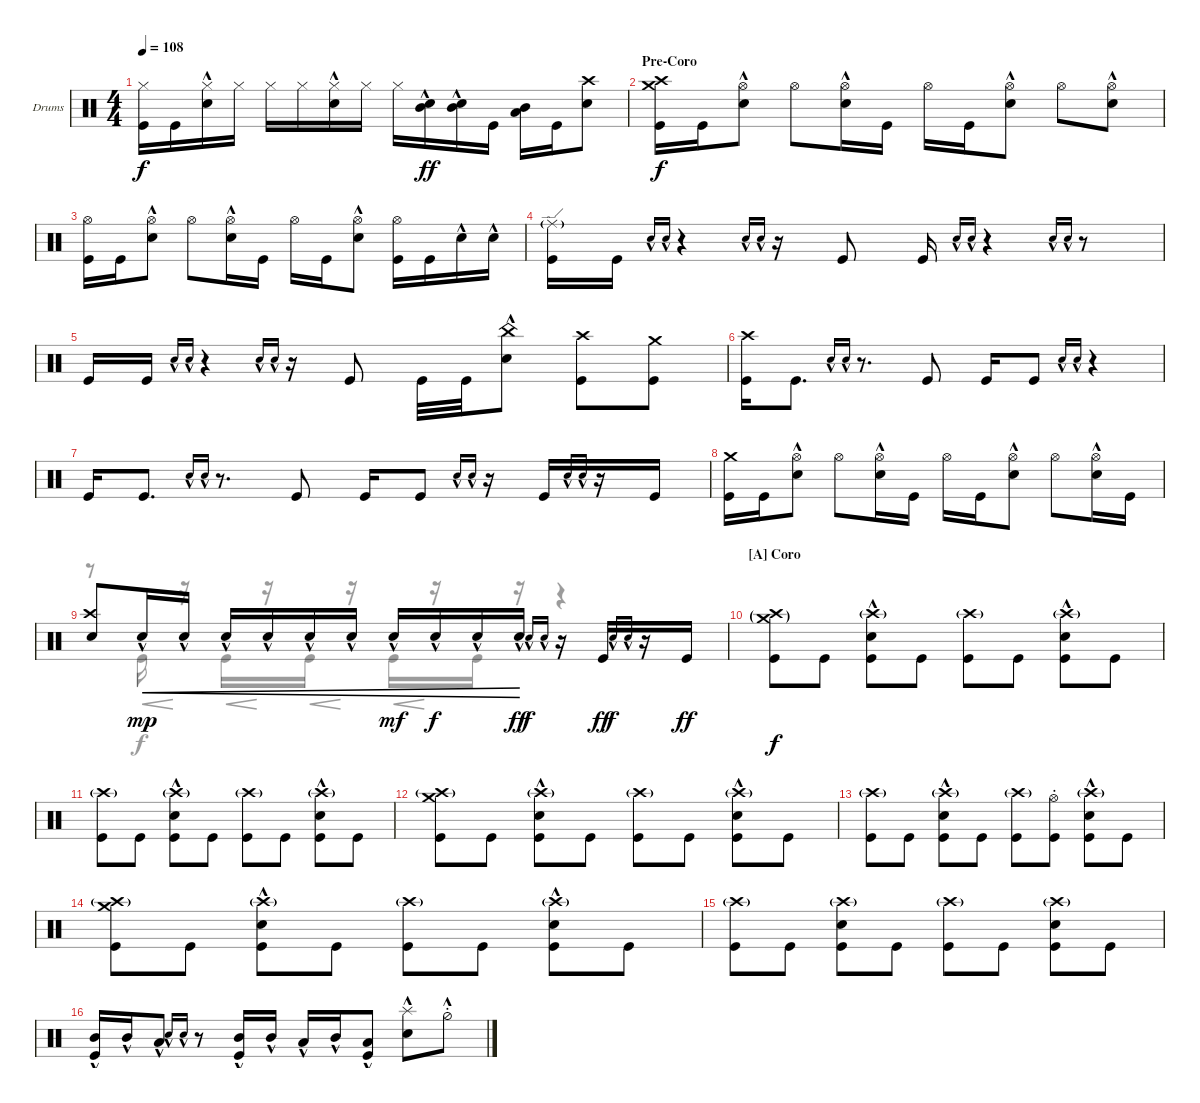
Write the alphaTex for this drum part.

\defaultSystemsLayout 4
\bracketExtendMode groupsimilarinstruments
\firstSystemTrackNameOrientation horizontal
\otherSystemsTrackNameOrientation horizontal
\track ("Drumkit " "Drums") {instrument percussion}
\staff {score}
\articulation defaults
\voice
\ts (4 4)
\tempo 108
\clef neutral
\ks c
("Kick (hit)" "Hi-Hat (closed)").16{dy f} "Kick (hit)".16 ("Snare (hit) 2"{hac} "Hi-Hat (closed)").16 "Hi-Hat (closed)".16 "Hi-Hat (closed)".16 "Hi-Hat (closed)".16 ("Snare (hit) 2"{hac} "Hi-Hat (closed)").16 "Hi-Hat (closed)".16 "Hi-Hat (closed)".16 ("Snare (hit) 2"{hac} "Mid Tom (hit)"{hac}).16{dy ff} ("Snare (hit) 2"{hac} "Mid Tom (hit)"{hac}).16 "Kick (hit)".16 ("Mid Tom (hit)" "Low Tom (hit)").16 "Kick (hit)".16 ("Snare (hit) 2" "Crash high (hit)").8 |
\section ("" "Pre-Coro")
("Kick (hit)" "Crash medium (hit)" "Crash high (hit)").16{dy f} "Kick (hit)".16 ("Snare (hit) 2"{hac} "Hi-Hat (open)").8 "Hi-Hat (open)".8 ("Snare (hit) 2"{hac} "Hi-Hat (open)").16 "Kick (hit)".16 "Hi-Hat (open)".16 "Kick (hit)".16 ("Hi-Hat (open)" "Snare (hit) 2"{hac}).8 "Hi-Hat (open)".8 ("Hi-Hat (open)" "Snare (hit) 2"{hac}).8 |
("Kick (hit)" "Hi-Hat (open)").16 "Kick (hit)".16 ("Snare (hit) 2"{hac} "Hi-Hat (open)").8 "Hi-Hat (open)".8 ("Snare (hit) 2"{hac} "Hi-Hat (open)").16 "Kick (hit)".16 "Hi-Hat (open)".16 "Kick (hit)".16 ("Hi-Hat (open)" "Snare (hit) 2"{hac}).8 ("Kick (hit)" "Hi-Hat (open)").16 "Kick (hit)".16 "Snare (hit) 2"{hac}.16 "Snare (hit) 2"{hac}.16 |
("Kick (hit)" "Ride (edge)"{g}).16 "Kick (hit)".16 "Snare (hit) 2"{hac}.16{gr onbeat} "Snare (hit) 2"{hac}.16{gr onbeat} r.4 "Snare (hit) 2"{hac}.16{gr onbeat} "Snare (hit) 2"{hac}.16{gr onbeat} r.16 "Kick (hit)".8 "Kick (hit)".16 "Snare (hit) 2"{hac}.16{gr onbeat} "Snare (hit) 2"{hac}.16{gr onbeat} r.4 "Snare (hit) 2"{hac}.16{gr onbeat} "Snare (hit) 2"{hac}.16{gr onbeat} r.8 |
"Kick (hit)".16 "Kick (hit)".16 "Snare (hit) 2"{hac}.16{gr onbeat} "Snare (hit) 2"{hac}.16{gr onbeat} r.4 "Snare (hit) 2"{hac}.16{gr onbeat} "Snare (hit) 2"{hac}.16{gr onbeat} r.16 "Kick (hit)".8 "Kick (hit)".32 "Kick (hit)".32 ("Snare (hit) 2"{hac} "China (hit)").8 ("Kick (hit)" "Crash high (hit)").8 ("Kick (hit)" "Crash medium (hit)").8 |
("Kick (hit)" "Crash high (hit)").16 "Kick (hit)".8{d} "Snare (hit) 2"{hac}.16{gr onbeat} "Snare (hit) 2"{hac}.16{gr onbeat} r.8{d} "Kick (hit)".8 "Kick (hit)".16 "Kick (hit)".8 "Snare (hit) 2"{hac}.16{gr onbeat} "Snare (hit) 2"{hac}.16{gr onbeat} r.4 |
"Kick (hit)".16 "Kick (hit)".8{d} "Snare (hit) 2"{hac}.16{gr onbeat} "Snare (hit) 2"{hac}.16{gr onbeat} r.8{d} "Kick (hit)".8 "Kick (hit)".16 "Kick (hit)".8 "Snare (hit) 2"{hac}.16{gr onbeat} "Snare (hit) 2"{hac}.16{gr onbeat} r.16 "Kick (hit)".16 "Snare (hit) 2"{hac}.16{gr onbeat} "Snare (hit) 2"{hac}.16{gr onbeat} r.16 "Kick (hit)".16 |
("Kick (hit)" "Crash medium (hit)").16 "Kick (hit)".16 ("Hi-Hat (open)"{hac} "Snare (hit) 2"{hac}).8 "Hi-Hat (open)".8 ("Hi-Hat (open)"{hac} "Snare (hit) 2"{hac}).16 "Kick (hit)".16 "Hi-Hat (open)".16 "Kick (hit)".16 ("Hi-Hat (open)"{hac} "Snare (hit) 2"{hac}).8 "Hi-Hat (open)".8 ("Hi-Hat (open)"{hac} "Snare (hit) 2"{hac}).16 "Kick (hit)".16 |
("Snare (hit) 2" "Crash high (hit)").8 "Snare (hit) 2"{hac}.16{cre dy mp} "Snare (hit) 2"{hac}.16{cre} "Snare (hit) 2"{hac}.16{cre} "Snare (hit) 2"{hac}.16{cre} "Snare (hit) 2"{hac}.16{cre} "Snare (hit) 2"{hac}.16{cre} "Snare (hit) 2"{hac}.16{cre dy mf} "Snare (hit) 2"{hac}.16{cre dy f} "Snare (hit) 2"{hac}.16{cre} "Snare (hit) 2"{hac}.16{cre dy ff} "Snare (hit) 2"{hac}.16{gr onbeat dy f} "Snare (hit) 2"{hac}.16{gr onbeat} r.16 "Kick (hit)".16{dy ff} "Snare (hit) 2"{hac}.16{gr onbeat dy f} "Snare (hit) 2"{hac}.16{gr onbeat} r.16 "Kick (hit)".16{dy ff} |
\section ("A" "Coro")
("Kick (hit)" "Crash medium (hit)"{g} "Crash high (hit)"{g}).8{dy f} "Kick (hit)".8 ("Kick (hit)" "Snare (hit) 2"{hac} "Crash high (hit)"{g}).8 "Kick (hit)".8 ("Kick (hit)" "Crash high (hit)"{g}).8 "Kick (hit)".8 ("Kick (hit)" "Snare (hit) 2"{hac} "Crash high (hit)"{g}).8 "Kick (hit)".8 |
("Kick (hit)" "Crash high (hit)"{g}).8 "Kick (hit)".8 ("Kick (hit)" "Snare (hit) 2"{hac} "Crash high (hit)"{g}).8 "Kick (hit)".8 ("Kick (hit)" "Crash high (hit)"{g}).8 "Kick (hit)".8 ("Kick (hit)" "Snare (hit) 2"{hac} "Crash high (hit)"{g}).8 "Kick (hit)".8 |
("Kick (hit)" "Crash high (hit)"{g} "Crash medium (hit)").8 "Kick (hit)".8 ("Kick (hit)" "Snare (hit) 2"{hac} "Crash high (hit)"{g}).8 "Kick (hit)".8 ("Kick (hit)" "Crash high (hit)"{g}).8 "Kick (hit)".8 ("Kick (hit)" "Snare (hit) 2"{hac} "Crash high (hit)"{g}).8 "Kick (hit)".8 |
("Kick (hit)" "Crash high (hit)"{g}).8 "Kick (hit)".8 ("Kick (hit)" "Snare (hit) 2"{hac} "Crash high (hit)"{g}).8 "Kick (hit)".8 ("Kick (hit)" "Crash high (hit)"{g}).8 ("Kick (hit)" "Hi-Hat (open)"{st}).8 ("Kick (hit)" "Snare (hit) 2"{hac} "Crash high (hit)"{g}).8 "Kick (hit)".8 |
("Kick (hit)" "Crash high (hit)"{g} "Crash medium (hit)").8 "Kick (hit)".8 ("Kick (hit)" "Snare (hit) 2"{hac} "Crash high (hit)"{g}).8 "Kick (hit)".8 ("Kick (hit)" "Crash high (hit)"{g}).8 "Kick (hit)".8 ("Kick (hit)" "Snare (hit) 2"{hac} "Crash high (hit)"{g}).8 "Kick (hit)".8 |
("Kick (hit)" "Crash high (hit)"{g}).8 "Kick (hit)".8 ("Kick (hit)" "Snare (hit) 2" "Crash high (hit)"{g}).8 "Kick (hit)".8 ("Kick (hit)" "Crash high (hit)"{g}).8 "Kick (hit)".8 ("Kick (hit)" "Snare (hit) 2" "Crash high (hit)"{g}).8 "Kick (hit)".8 |
("Kick (hit)" "Mid Tom (hit)"{hac}).16 "Mid Tom (hit)"{hac}.16 "Low Tom (hit)"{hac}.8 "Snare (hit) 2"{hac}.16{gr onbeat} "Snare (hit) 2"{hac}.16{gr onbeat} r.8 ("Mid Tom (hit)"{hac} "Kick (hit)").16 "Mid Tom (hit)"{hac}.16 "Low Tom (hit)"{hac}.16 "Mid Tom (hit)"{hac}.16 ("Low Tom (hit)"{hac} "Kick (hit)").8 ("Snare (hit) 2"{hac} "Splash (hit)").8 "Hi-Hat (half)"{hac st}.8
\voice
\clef neutral
\ottava regular
\simile none
\ks c
|
|
|
|
|
|
|
|
r.8 "Kick (hit)".16{cre} r.16 "Kick (hit)".16{cre} r.16 "Kick (hit)".16{cre} r.16 "Kick (hit)".16{cre} r.16 "Kick (hit)".16 r.16 r.4 |
|
|
|
|
|
|
